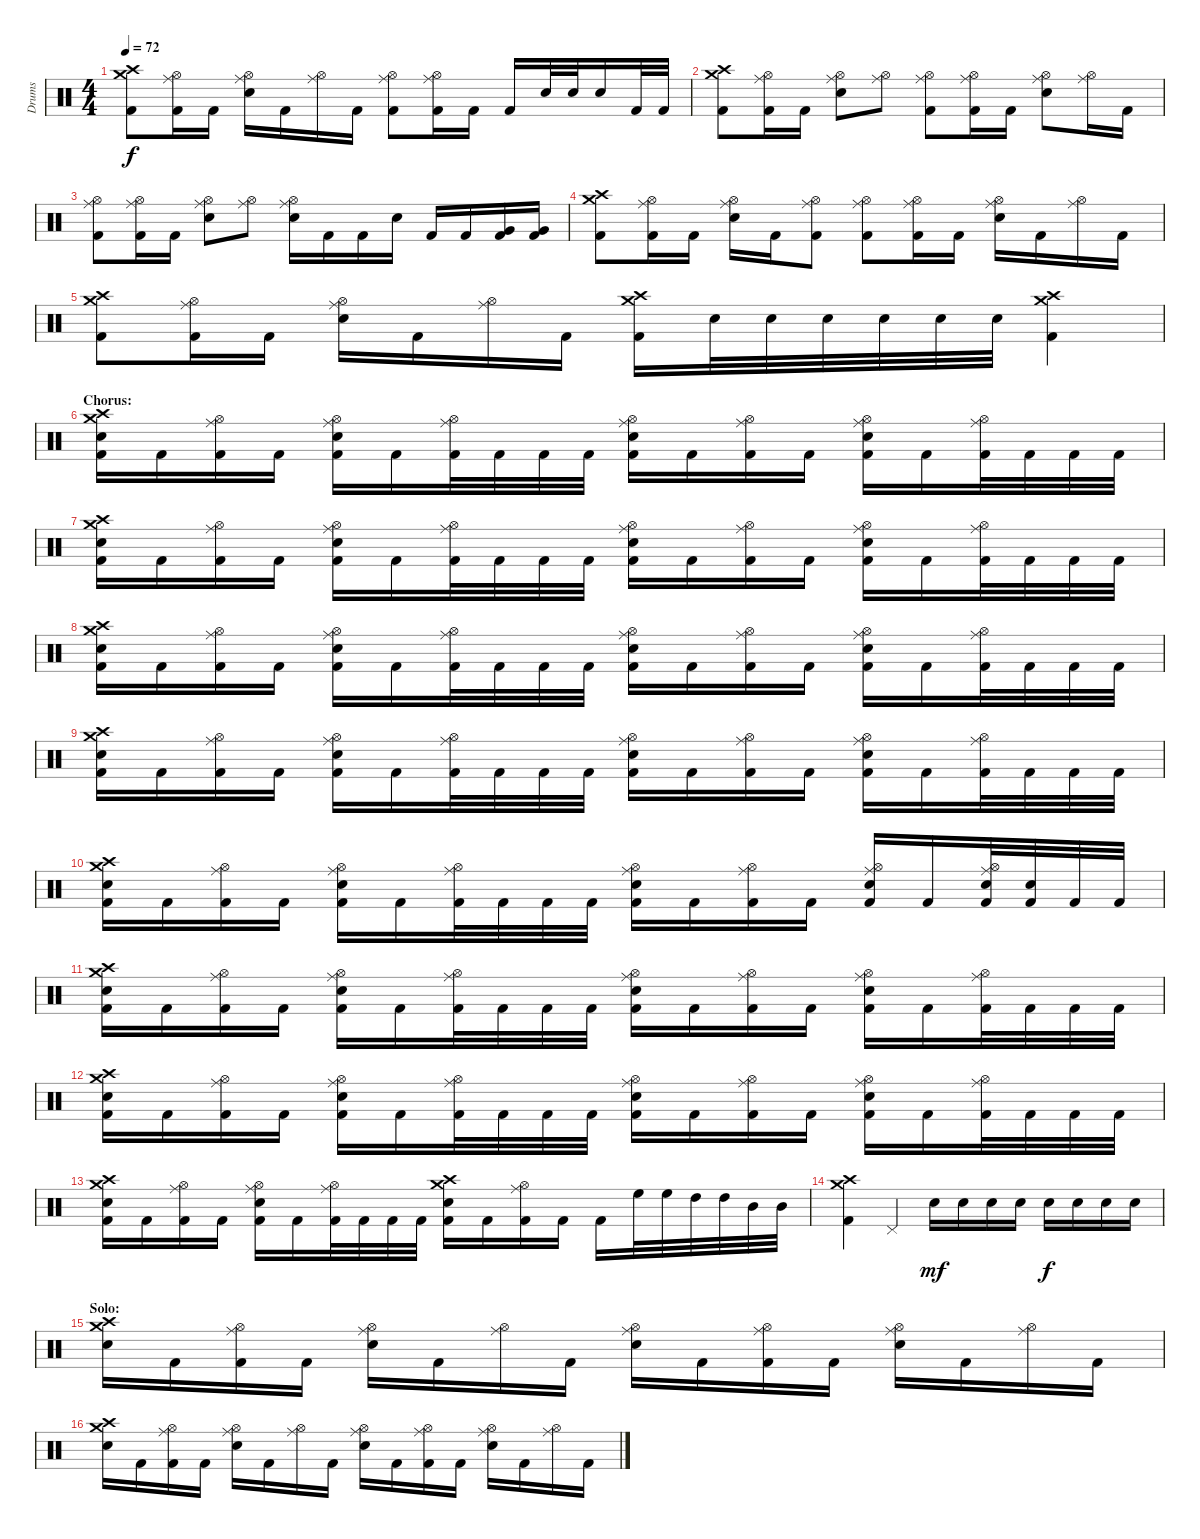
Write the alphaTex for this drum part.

\track ("Drums" "Drums") {instrument percussion}
\staff {score}
\articulation defaults
\ts (4 4)
\tempo 72
\clef neutral
\ks c
("Crash medium (hit)" "Crash high (hit)" "Kick (hit) 2").8{dy f} ("Ride (middle)" "Hi-Hat (open)" "Kick (hit) 2").16 "Kick (hit) 2".16 ("Ride (middle)" "Hi-Hat (open)" "Electric Snare (hit)").16 "Kick (hit) 2".16 ("Ride (middle)" "Hi-Hat (open)").16 "Kick (hit) 2".16 ("Ride (middle)" "Hi-Hat (open)" "Kick (hit) 2").8 ("Ride (middle)" "Hi-Hat (open)" "Kick (hit) 2").16 "Kick (hit) 2".16 "Kick (hit) 2".16 "Electric Snare (hit)".32 "Electric Snare (hit)".32 "Electric Snare (hit)".16 "Kick (hit) 2".32 "Kick (hit) 2".32 |
("Crash medium (hit)" "Crash high (hit)" "Kick (hit) 2").8 ("Ride (middle)" "Hi-Hat (open)" "Kick (hit) 2").16 "Kick (hit) 2".16 ("Ride (middle)" "Hi-Hat (open)" "Electric Snare (hit)").8 ("Ride (middle)" "Hi-Hat (open)").8 ("Ride (middle)" "Hi-Hat (open)" "Kick (hit) 2").8 ("Ride (middle)" "Hi-Hat (open)" "Kick (hit) 2").16 "Kick (hit) 2".16 ("Ride (middle)" "Hi-Hat (open)" "Electric Snare (hit)").8 ("Ride (middle)" "Hi-Hat (open)").16 "Kick (hit) 2".16 |
("Ride (middle)" "Hi-Hat (open)" "Kick (hit) 2").8 ("Ride (middle)" "Hi-Hat (open)" "Kick (hit) 2").16 "Kick (hit) 2".16 ("Ride (middle)" "Hi-Hat (open)" "Electric Snare (hit)").8 ("Ride (middle)" "Hi-Hat (open)").8 ("Ride (middle)" "Hi-Hat (open)" "Electric Snare (hit)").16 "Kick (hit) 2".16 "Kick (hit) 2".16 "Electric Snare (hit)".16 "Kick (hit) 2".16 "Kick (hit) 2".16 ("Very Low Tom (hit)" "Kick (hit) 2").16 ("Very Low Tom (hit)" "Kick (hit) 2").16 |
("Crash medium (hit)" "Crash high (hit)" "Kick (hit) 2").8 ("Ride (middle)" "Hi-Hat (open)" "Kick (hit) 2").16 "Kick (hit) 2".16 ("Ride (middle)" "Hi-Hat (open)" "Electric Snare (hit)").16 "Kick (hit) 2".16 ("Ride (middle)" "Hi-Hat (open)" "Kick (hit) 2").8 ("Ride (middle)" "Hi-Hat (open)" "Kick (hit) 2").8 ("Ride (middle)" "Hi-Hat (open)" "Kick (hit) 2").16 "Kick (hit) 2".16 ("Ride (middle)" "Hi-Hat (open)" "Electric Snare (hit)").16 "Kick (hit) 2".16 ("Ride (middle)" "Hi-Hat (open)").16 "Kick (hit) 2".16 |
("Crash medium (hit)" "Crash high (hit)" "Kick (hit) 2").8 ("Ride (middle)" "Hi-Hat (open)" "Kick (hit) 2").16 "Kick (hit) 2".16 ("Ride (middle)" "Hi-Hat (open)" "Electric Snare (hit)").16 "Kick (hit) 2".16 ("Ride (middle)" "Hi-Hat (open)").16 "Kick (hit) 2".16 ("Crash medium (hit)" "Crash high (hit)" "Kick (hit) 2").16 "Electric Snare (hit)".32 "Electric Snare (hit)".32 "Electric Snare (hit)".32 "Electric Snare (hit)".32 "Electric Snare (hit)".32 "Electric Snare (hit)".32 ("Crash medium (hit)" "Crash high (hit)" "Kick (hit) 2").4 |
\section ("" "Chorus:")
("Crash medium (hit)" "Crash high (hit)" "Electric Snare (hit)" "Kick (hit) 2").16 "Kick (hit) 2".16 ("Ride (middle)" "Hi-Hat (open)" "Kick (hit) 2").16 "Kick (hit) 2".16 ("Ride (middle)" "Hi-Hat (open)" "Electric Snare (hit)" "Kick (hit) 2").16 "Kick (hit) 2".16 ("Ride (middle)" "Hi-Hat (open)" "Kick (hit) 2").32 "Kick (hit) 2".32 "Kick (hit) 2".32 "Kick (hit) 2".32 ("Ride (middle)" "Hi-Hat (open)" "Electric Snare (hit)" "Kick (hit) 2").16 "Kick (hit) 2".16 ("Ride (middle)" "Hi-Hat (open)" "Kick (hit) 2").16 "Kick (hit) 2".16 ("Ride (middle)" "Hi-Hat (open)" "Electric Snare (hit)" "Kick (hit) 2").16 "Kick (hit) 2".16 ("Ride (middle)" "Hi-Hat (open)" "Kick (hit) 2").32 "Kick (hit) 2".32 "Kick (hit) 2".32 "Kick (hit) 2".32 |
("Crash medium (hit)" "Crash high (hit)" "Electric Snare (hit)" "Kick (hit) 2").16 "Kick (hit) 2".16 ("Ride (middle)" "Hi-Hat (open)" "Kick (hit) 2").16 "Kick (hit) 2".16 ("Ride (middle)" "Hi-Hat (open)" "Electric Snare (hit)" "Kick (hit) 2").16 "Kick (hit) 2".16 ("Ride (middle)" "Hi-Hat (open)" "Kick (hit) 2").32 "Kick (hit) 2".32 "Kick (hit) 2".32 "Kick (hit) 2".32 ("Ride (middle)" "Hi-Hat (open)" "Electric Snare (hit)" "Kick (hit) 2").16 "Kick (hit) 2".16 ("Ride (middle)" "Hi-Hat (open)" "Kick (hit) 2").16 "Kick (hit) 2".16 ("Ride (middle)" "Hi-Hat (open)" "Electric Snare (hit)" "Kick (hit) 2").16 "Kick (hit) 2".16 ("Ride (middle)" "Hi-Hat (open)" "Kick (hit) 2").32 "Kick (hit) 2".32 "Kick (hit) 2".32 "Kick (hit) 2".32 |
("Crash medium (hit)" "Crash high (hit)" "Electric Snare (hit)" "Kick (hit) 2").16 "Kick (hit) 2".16 ("Ride (middle)" "Hi-Hat (open)" "Kick (hit) 2").16 "Kick (hit) 2".16 ("Ride (middle)" "Hi-Hat (open)" "Electric Snare (hit)" "Kick (hit) 2").16 "Kick (hit) 2".16 ("Ride (middle)" "Hi-Hat (open)" "Kick (hit) 2").32 "Kick (hit) 2".32 "Kick (hit) 2".32 "Kick (hit) 2".32 ("Ride (middle)" "Hi-Hat (open)" "Electric Snare (hit)" "Kick (hit) 2").16 "Kick (hit) 2".16 ("Ride (middle)" "Hi-Hat (open)" "Kick (hit) 2").16 "Kick (hit) 2".16 ("Ride (middle)" "Hi-Hat (open)" "Electric Snare (hit)" "Kick (hit) 2").16 "Kick (hit) 2".16 ("Ride (middle)" "Hi-Hat (open)" "Kick (hit) 2").32 "Kick (hit) 2".32 "Kick (hit) 2".32 "Kick (hit) 2".32 |
("Crash medium (hit)" "Crash high (hit)" "Electric Snare (hit)" "Kick (hit) 2").16 "Kick (hit) 2".16 ("Ride (middle)" "Hi-Hat (open)" "Kick (hit) 2").16 "Kick (hit) 2".16 ("Ride (middle)" "Hi-Hat (open)" "Electric Snare (hit)" "Kick (hit) 2").16 "Kick (hit) 2".16 ("Ride (middle)" "Hi-Hat (open)" "Kick (hit) 2").32 "Kick (hit) 2".32 "Kick (hit) 2".32 "Kick (hit) 2".32 ("Ride (middle)" "Hi-Hat (open)" "Electric Snare (hit)" "Kick (hit) 2").16 "Kick (hit) 2".16 ("Ride (middle)" "Hi-Hat (open)" "Kick (hit) 2").16 "Kick (hit) 2".16 ("Ride (middle)" "Hi-Hat (open)" "Electric Snare (hit)" "Kick (hit) 2").16 "Kick (hit) 2".16 ("Ride (middle)" "Hi-Hat (open)" "Kick (hit) 2").32 "Kick (hit) 2".32 "Kick (hit) 2".32 "Kick (hit) 2".32 |
("Crash medium (hit)" "Crash high (hit)" "Electric Snare (hit)" "Kick (hit) 2").16 "Kick (hit) 2".16 ("Ride (middle)" "Hi-Hat (open)" "Kick (hit) 2").16 "Kick (hit) 2".16 ("Ride (middle)" "Hi-Hat (open)" "Electric Snare (hit)" "Kick (hit) 2").16 "Kick (hit) 2".16 ("Ride (middle)" "Hi-Hat (open)" "Kick (hit) 2").32 "Kick (hit) 2".32 "Kick (hit) 2".32 "Kick (hit) 2".32 ("Ride (middle)" "Hi-Hat (open)" "Electric Snare (hit)" "Kick (hit) 2").16 "Kick (hit) 2".16 ("Ride (middle)" "Hi-Hat (open)" "Kick (hit) 2").16 "Kick (hit) 2".16 ("Ride (middle)" "Hi-Hat (open)" "Electric Snare (hit)" "Kick (hit) 2").16 "Kick (hit) 2".16 ("Ride (middle)" "Hi-Hat (open)" "Electric Snare (hit)" "Kick (hit) 2").32 ("Electric Snare (hit)" "Kick (hit) 2").32 "Kick (hit) 2".32 "Kick (hit) 2".32 |
("Crash medium (hit)" "Crash high (hit)" "Electric Snare (hit)" "Kick (hit) 2").16 "Kick (hit) 2".16 ("Ride (middle)" "Hi-Hat (open)" "Kick (hit) 2").16 "Kick (hit) 2".16 ("Ride (middle)" "Hi-Hat (open)" "Electric Snare (hit)" "Kick (hit) 2").16 "Kick (hit) 2".16 ("Ride (middle)" "Hi-Hat (open)" "Kick (hit) 2").32 "Kick (hit) 2".32 "Kick (hit) 2".32 "Kick (hit) 2".32 ("Ride (middle)" "Hi-Hat (open)" "Electric Snare (hit)" "Kick (hit) 2").16 "Kick (hit) 2".16 ("Ride (middle)" "Hi-Hat (open)" "Kick (hit) 2").16 "Kick (hit) 2".16 ("Ride (middle)" "Hi-Hat (open)" "Electric Snare (hit)" "Kick (hit) 2").16 "Kick (hit) 2".16 ("Ride (middle)" "Hi-Hat (open)" "Kick (hit) 2").32 "Kick (hit) 2".32 "Kick (hit) 2".32 "Kick (hit) 2".32 |
("Crash medium (hit)" "Crash high (hit)" "Electric Snare (hit)" "Kick (hit) 2").16 "Kick (hit) 2".16 ("Ride (middle)" "Hi-Hat (open)" "Kick (hit) 2").16 "Kick (hit) 2".16 ("Ride (middle)" "Hi-Hat (open)" "Electric Snare (hit)" "Kick (hit) 2").16 "Kick (hit) 2".16 ("Ride (middle)" "Hi-Hat (open)" "Kick (hit) 2").32 "Kick (hit) 2".32 "Kick (hit) 2".32 "Kick (hit) 2".32 ("Ride (middle)" "Hi-Hat (open)" "Electric Snare (hit)" "Kick (hit) 2").16 "Kick (hit) 2".16 ("Ride (middle)" "Hi-Hat (open)" "Kick (hit) 2").16 "Kick (hit) 2".16 ("Ride (middle)" "Hi-Hat (open)" "Electric Snare (hit)" "Kick (hit) 2").16 "Kick (hit) 2".16 ("Ride (middle)" "Hi-Hat (open)" "Kick (hit) 2").32 "Kick (hit) 2".32 "Kick (hit) 2".32 "Kick (hit) 2".32 |
("Crash medium (hit)" "Crash high (hit)" "Electric Snare (hit)" "Kick (hit) 2").16 "Kick (hit) 2".16 ("Ride (middle)" "Hi-Hat (open)" "Kick (hit) 2").16 "Kick (hit) 2".16 ("Ride (middle)" "Hi-Hat (open)" "Electric Snare (hit)" "Kick (hit) 2").16 "Kick (hit) 2".16 ("Ride (middle)" "Hi-Hat (open)" "Kick (hit) 2").32 "Kick (hit) 2".32 "Kick (hit) 2".32 "Kick (hit) 2".32 ("Crash medium (hit)" "Crash high (hit)" "Electric Snare (hit)" "Kick (hit) 2").16 "Kick (hit) 2".16 ("Ride (middle)" "Hi-Hat (open)" "Kick (hit) 2").16 "Kick (hit) 2".16 "Kick (hit) 2".16 "High Floor Tom (hit)".32 "High Floor Tom (hit)".32 "High Tom (hit)".32 "High Tom (hit)".32 "Mid Tom (hit)".32 "Mid Tom (hit)".32 |
("Crash medium (hit)" "Crash high (hit)" "Kick (hit) 2").4 "Pedal Hi-Hat (hit)".4 "Electric Snare (hit)".16{dy mf} "Electric Snare (hit)".16 "Electric Snare (hit)".16 "Electric Snare (hit)".16 "Electric Snare (hit)".16{dy f} "Electric Snare (hit)".16 "Electric Snare (hit)".16 "Electric Snare (hit)".16 |
\section ("" "Solo:")
("Crash medium (hit)" "Crash high (hit)" "Electric Snare (hit)").16 "Kick (hit) 2".16 ("Ride (middle)" "Hi-Hat (open)" "Kick (hit) 2").16 "Kick (hit) 2".16 ("Ride (middle)" "Hi-Hat (open)" "Electric Snare (hit)").16 "Kick (hit) 2".16 ("Ride (middle)" "Hi-Hat (open)").16 "Kick (hit) 2".16 ("Ride (middle)" "Hi-Hat (open)" "Electric Snare (hit)").16 "Kick (hit) 2".16 ("Ride (middle)" "Hi-Hat (open)" "Kick (hit) 2").16 "Kick (hit) 2".16 ("Ride (middle)" "Hi-Hat (open)" "Electric Snare (hit)").16 "Kick (hit) 2".16 ("Ride (middle)" "Hi-Hat (open)").16 "Kick (hit) 2".16 |
("Crash medium (hit)" "Crash high (hit)" "Electric Snare (hit)").16 "Kick (hit) 2".16 ("Ride (middle)" "Hi-Hat (open)" "Kick (hit) 2").16 "Kick (hit) 2".16 ("Ride (middle)" "Hi-Hat (open)" "Electric Snare (hit)").16 "Kick (hit) 2".16 ("Ride (middle)" "Hi-Hat (open)").16 "Kick (hit) 2".16 ("Ride (middle)" "Hi-Hat (open)" "Electric Snare (hit)").16 "Kick (hit) 2".16 ("Ride (middle)" "Hi-Hat (open)" "Kick (hit) 2").16 "Kick (hit) 2".16 ("Ride (middle)" "Hi-Hat (open)" "Electric Snare (hit)").16 "Kick (hit) 2".16 ("Ride (middle)" "Hi-Hat (open)").16 "Kick (hit) 2".16
